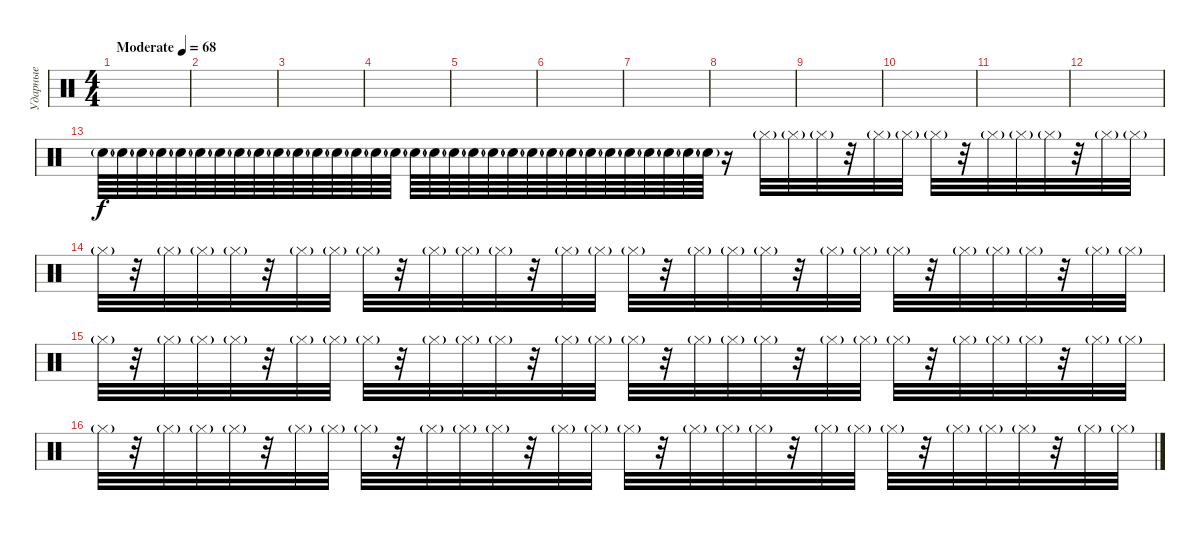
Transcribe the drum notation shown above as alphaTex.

\track ("Ударные" "Ударные") {instrument percussion}
\staff {score}
\articulation defaults
\ts (4 4)
\tempo (68 "Moderate")
\clef neutral
\ks c
|
|
|
|
|
|
|
|
|
|
|
|
"Snare (hit) 2"{g}.64 "Snare (hit) 2"{g}.64 "Snare (hit) 2"{g}.64 "Snare (hit) 2"{g}.64 "Snare (hit) 2"{g}.64 "Snare (hit) 2"{g}.64 "Snare (hit) 2"{g}.64 "Snare (hit) 2"{g}.64 "Snare (hit) 2"{g}.64 "Snare (hit) 2"{g}.64 "Snare (hit) 2"{g}.64 "Snare (hit) 2"{g}.64 "Snare (hit) 2"{g}.64 "Snare (hit) 2"{g}.64 "Snare (hit) 2"{g}.64 "Snare (hit) 2"{g}.64 "Snare (hit) 2"{g}.64 "Snare (hit) 2"{g}.64 "Snare (hit) 2"{g}.64 "Snare (hit) 2"{g}.64 "Snare (hit) 2"{g}.64 "Snare (hit) 2"{g}.64 "Snare (hit) 2"{g}.64 "Snare (hit) 2"{g}.64 "Snare (hit) 2"{g}.64 "Snare (hit) 2"{g}.64 "Snare (hit) 2"{g}.64 "Snare (hit) 2"{g}.64 "Snare (hit) 2"{g}.64 "Snare (hit) 2"{g}.64 "Snare (hit) 2"{g}.64 "Snare (hit) 2"{g}.64 r.16 "Hi-Hat (closed)"{g}.32 "Hi-Hat (closed)"{g}.32 "Hi-Hat (closed)"{g}.32 r.32 "Hi-Hat (closed)"{g}.32 "Hi-Hat (closed)"{g}.32 "Hi-Hat (closed)"{g}.32 r.32 "Hi-Hat (closed)"{g}.32 "Hi-Hat (closed)"{g}.32 "Hi-Hat (closed)"{g}.32 r.32 "Hi-Hat (closed)"{g}.32 "Hi-Hat (closed)"{g}.32 |
"Hi-Hat (closed)"{g}.32 r.32 "Hi-Hat (closed)"{g}.32 "Hi-Hat (closed)"{g}.32 "Hi-Hat (closed)"{g}.32 r.32 "Hi-Hat (closed)"{g}.32 "Hi-Hat (closed)"{g}.32 "Hi-Hat (closed)"{g}.32 r.32 "Hi-Hat (closed)"{g}.32 "Hi-Hat (closed)"{g}.32 "Hi-Hat (closed)"{g}.32 r.32 "Hi-Hat (closed)"{g}.32 "Hi-Hat (closed)"{g}.32 "Hi-Hat (closed)"{g}.32 r.32 "Hi-Hat (closed)"{g}.32 "Hi-Hat (closed)"{g}.32 "Hi-Hat (closed)"{g}.32 r.32 "Hi-Hat (closed)"{g}.32 "Hi-Hat (closed)"{g}.32 "Hi-Hat (closed)"{g}.32 r.32 "Hi-Hat (closed)"{g}.32 "Hi-Hat (closed)"{g}.32 "Hi-Hat (closed)"{g}.32 r.32 "Hi-Hat (closed)"{g}.32 "Hi-Hat (closed)"{g}.32 |
"Hi-Hat (closed)"{g}.32 r.32 "Hi-Hat (closed)"{g}.32 "Hi-Hat (closed)"{g}.32 "Hi-Hat (closed)"{g}.32 r.32 "Hi-Hat (closed)"{g}.32 "Hi-Hat (closed)"{g}.32 "Hi-Hat (closed)"{g}.32 r.32 "Hi-Hat (closed)"{g}.32 "Hi-Hat (closed)"{g}.32 "Hi-Hat (closed)"{g}.32 r.32 "Hi-Hat (closed)"{g}.32 "Hi-Hat (closed)"{g}.32 "Hi-Hat (closed)"{g}.32 r.32 "Hi-Hat (closed)"{g}.32 "Hi-Hat (closed)"{g}.32 "Hi-Hat (closed)"{g}.32 r.32 "Hi-Hat (closed)"{g}.32 "Hi-Hat (closed)"{g}.32 "Hi-Hat (closed)"{g}.32 r.32 "Hi-Hat (closed)"{g}.32 "Hi-Hat (closed)"{g}.32 "Hi-Hat (closed)"{g}.32 r.32 "Hi-Hat (closed)"{g}.32 "Hi-Hat (closed)"{g}.32 |
"Hi-Hat (closed)"{g}.32 r.32 "Hi-Hat (closed)"{g}.32 "Hi-Hat (closed)"{g}.32 "Hi-Hat (closed)"{g}.32 r.32 "Hi-Hat (closed)"{g}.32 "Hi-Hat (closed)"{g}.32 "Hi-Hat (closed)"{g}.32 r.32 "Hi-Hat (closed)"{g}.32 "Hi-Hat (closed)"{g}.32 "Hi-Hat (closed)"{g}.32 r.32 "Hi-Hat (closed)"{g}.32 "Hi-Hat (closed)"{g}.32 "Hi-Hat (closed)"{g}.32 r.32 "Hi-Hat (closed)"{g}.32 "Hi-Hat (closed)"{g}.32 "Hi-Hat (closed)"{g}.32 r.32 "Hi-Hat (closed)"{g}.32 "Hi-Hat (closed)"{g}.32 "Hi-Hat (closed)"{g}.32 r.32 "Hi-Hat (closed)"{g}.32 "Hi-Hat (closed)"{g}.32 "Hi-Hat (closed)"{g}.32 r.32 "Hi-Hat (closed)"{g}.32 "Hi-Hat (closed)"{g}.32
